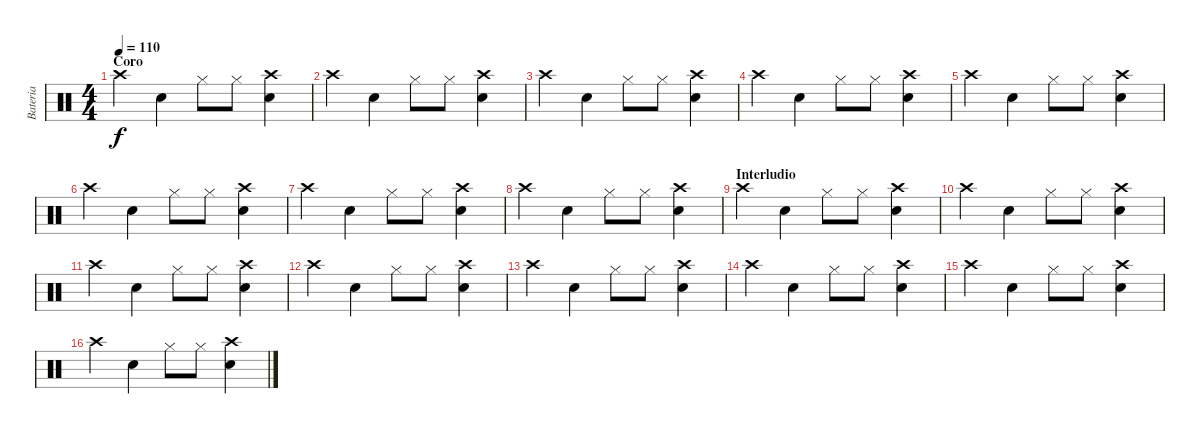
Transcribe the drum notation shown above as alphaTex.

\track ("Bateria" "Bateria") {instrument percussion}
\staff {score}
\articulation defaults
\ts (4 4)
\section ("" "Coro")
\tempo 110
\clef neutral
\ks c "Crash high (hit)".4{dy f} "Electric Snare (hit)".4 "Hi-Hat (closed)".8 "Hi-Hat (closed)".8
("Crash high (hit)" "Electric Snare (hit)").4 |
"Crash high (hit)".4 "Electric Snare (hit)".4 "Hi-Hat (closed)".8 "Hi-Hat (closed)".8 ("Crash high (hit)" "Electric Snare (hit)").4 |
"Crash high (hit)".4 "Electric Snare (hit)".4 "Hi-Hat (closed)".8 "Hi-Hat (closed)".8 ("Crash high (hit)" "Electric Snare (hit)").4 |
"Crash high (hit)".4 "Electric Snare (hit)".4 "Hi-Hat (closed)".8 "Hi-Hat (closed)".8 ("Crash high (hit)" "Electric Snare (hit)").4 |
"Crash high (hit)".4 "Electric Snare (hit)".4 "Hi-Hat (closed)".8 "Hi-Hat (closed)".8 ("Crash high (hit)" "Electric Snare (hit)").4 |
"Crash high (hit)".4 "Electric Snare (hit)".4 "Hi-Hat (closed)".8 "Hi-Hat (closed)".8 ("Crash high (hit)" "Electric Snare (hit)").4 |
"Crash high (hit)".4 "Electric Snare (hit)".4 "Hi-Hat (closed)".8 "Hi-Hat (closed)".8 ("Crash high (hit)" "Electric Snare (hit)").4 |
"Crash high (hit)".4 "Electric Snare (hit)".4 "Hi-Hat (closed)".8 "Hi-Hat (closed)".8 ("Crash high (hit)" "Electric Snare (hit)").4 |
\section ("" "Interludio")
"Crash high (hit)".4 "Electric Snare (hit)".4 "Hi-Hat (closed)".8 "Hi-Hat (closed)".8 ("Crash high (hit)" "Electric Snare (hit)").4 |
"Crash high (hit)".4 "Electric Snare (hit)".4 "Hi-Hat (closed)".8 "Hi-Hat (closed)".8 ("Crash high (hit)" "Electric Snare (hit)").4 |
"Crash high (hit)".4 "Electric Snare (hit)".4 "Hi-Hat (closed)".8 "Hi-Hat (closed)".8 ("Crash high (hit)" "Electric Snare (hit)").4 |
"Crash high (hit)".4 "Electric Snare (hit)".4 "Hi-Hat (closed)".8 "Hi-Hat (closed)".8 ("Crash high (hit)" "Electric Snare (hit)").4 |
"Crash high (hit)".4 "Electric Snare (hit)".4 "Hi-Hat (closed)".8 "Hi-Hat (closed)".8 ("Crash high (hit)" "Electric Snare (hit)").4 |
"Crash high (hit)".4 "Electric Snare (hit)".4 "Hi-Hat (closed)".8 "Hi-Hat (closed)".8 ("Crash high (hit)" "Electric Snare (hit)").4 |
"Crash high (hit)".4 "Electric Snare (hit)".4 "Hi-Hat (closed)".8 "Hi-Hat (closed)".8 ("Crash high (hit)" "Electric Snare (hit)").4 |
"Crash high (hit)".4 "Electric Snare (hit)".4 "Hi-Hat (closed)".8 "Hi-Hat (closed)".8 ("Crash high (hit)" "Electric Snare (hit)").4
